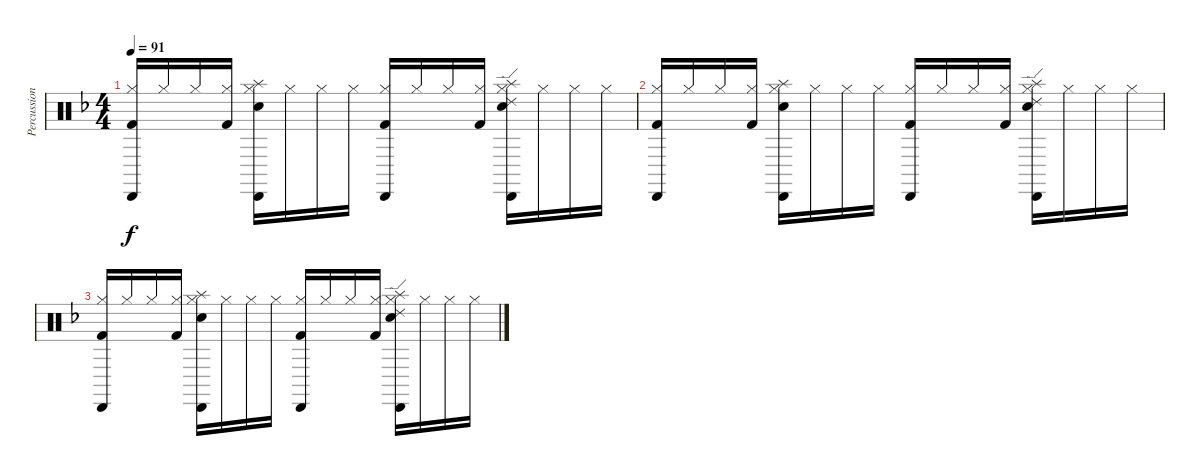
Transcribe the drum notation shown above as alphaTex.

\track ("Percussion" "Percussion") {instrument percussion}
\staff {score}
\articulation defaults
\ts (4 4)
\tempo 91
\clef neutral
\ks dminor
("Hi-Hat (closed)" "Kick (hit) 2" "Cabasa (hit)").16{dy f} "Hi-Hat (closed)".16 "Hi-Hat (closed)".16 ("Hi-Hat (closed)" "Kick (hit) 2").16 ("Hi-Hat (closed)" "Snare (hit) 2" "Cabasa (hit)" "Splash (hit)").16 "Hi-Hat (closed)".16 "Hi-Hat (closed)".16 "Hi-Hat (closed)".16 ("Hi-Hat (closed)" "Kick (hit) 2" "Cabasa (hit)").16 "Hi-Hat (closed)".16 "Hi-Hat (closed)".16 ("Hi-Hat (closed)" "Kick (hit) 2").16 ("Hi-Hat (closed)" "Snare (hit) 2" "Cabasa (hit)" "Ride (edge) 2" "Splash (hit)").16 "Hi-Hat (closed)".16 "Hi-Hat (closed)".16 "Hi-Hat (closed)".16 |
("Hi-Hat (closed)" "Kick (hit) 2" "Cabasa (hit)").16 "Hi-Hat (closed)".16 "Hi-Hat (closed)".16 ("Hi-Hat (closed)" "Kick (hit) 2").16 ("Hi-Hat (closed)" "Snare (hit) 2" "Cabasa (hit)" "Splash (hit)").16 "Hi-Hat (closed)".16 "Hi-Hat (closed)".16 "Hi-Hat (closed)".16 ("Hi-Hat (closed)" "Kick (hit) 2" "Cabasa (hit)").16 "Hi-Hat (closed)".16 "Hi-Hat (closed)".16 ("Hi-Hat (closed)" "Kick (hit) 2").16 ("Hi-Hat (closed)" "Snare (hit) 2" "Cabasa (hit)" "Ride (edge) 2" "Splash (hit)").16 "Hi-Hat (closed)".16 "Hi-Hat (closed)".16 "Hi-Hat (closed)".16 |
("Hi-Hat (closed)" "Kick (hit) 2" "Cabasa (hit)").16 "Hi-Hat (closed)".16 "Hi-Hat (closed)".16 ("Hi-Hat (closed)" "Kick (hit) 2").16 ("Hi-Hat (closed)" "Snare (hit) 2" "Cabasa (hit)" "Splash (hit)").16 "Hi-Hat (closed)".16 "Hi-Hat (closed)".16 "Hi-Hat (closed)".16 ("Hi-Hat (closed)" "Kick (hit) 2" "Cabasa (hit)").16 "Hi-Hat (closed)".16 "Hi-Hat (closed)".16 ("Hi-Hat (closed)" "Kick (hit) 2").16 ("Hi-Hat (closed)" "Snare (hit) 2" "Cabasa (hit)" "Ride (edge) 2" "Splash (hit)").16 "Hi-Hat (closed)".16 "Hi-Hat (closed)".16 "Hi-Hat (closed)".16
